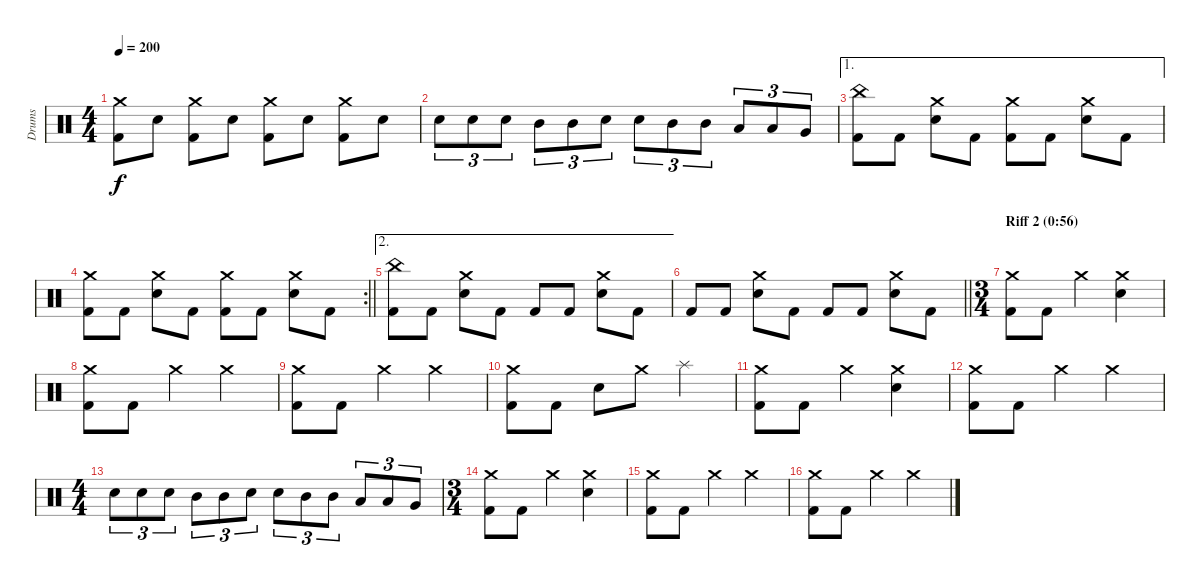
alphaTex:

\track ("Drums" "Drums") {instrument percussion}
\staff {score}
\articulation defaults
\ts (4 4)
\tempo 200
\clef neutral
\ks c
("Crash medium (hit)" "Kick (hit) 2").8{dy f} "Electric Snare (hit)".8 ("Crash medium (hit)" "Kick (hit) 2").8 "Electric Snare (hit)".8 ("Crash medium (hit)" "Kick (hit) 2").8 "Electric Snare (hit)".8 ("Crash medium (hit)" "Kick (hit) 2").8 "Electric Snare (hit)".8 |
"Electric Snare (hit)".8{tu (3 2)} "Electric Snare (hit)".8{tu (3 2)} "Electric Snare (hit)".8{tu (3 2)} "Mid Tom (hit)".8{tu (3 2)} "Mid Tom (hit)".8{tu (3 2)} "Electric Snare (hit)".8{tu (3 2)} "Electric Snare (hit)".8{tu (3 2)} "Mid Tom (hit)".8{tu (3 2)} "Mid Tom (hit)".8{tu (3 2)} "Low Tom (hit)".8{tu (3 2)} "Low Tom (hit)".8{tu (3 2)} "Very Low Tom (hit)".8{tu (3 2)} |
\ae 1
("China (hit)" "Kick (hit) 2").8 "Kick (hit) 2".8 ("Crash medium (hit)" "Electric Snare (hit)").8 "Kick (hit) 2".8 ("Crash medium (hit)" "Kick (hit) 2").8 "Kick (hit) 2".8 ("Crash medium (hit)" "Electric Snare (hit)").8 "Kick (hit) 2".8 |
\rc 2
\barLineRight lightlight
("Crash medium (hit)" "Kick (hit) 2").8 "Kick (hit) 2".8 ("Crash medium (hit)" "Electric Snare (hit)").8 "Kick (hit) 2".8 ("Crash medium (hit)" "Kick (hit) 2").8 "Kick (hit) 2".8 ("Crash medium (hit)" "Electric Snare (hit)").8 "Kick (hit) 2".8 |
\ae 2
("China (hit)" "Kick (hit) 2").8 "Kick (hit) 2".8 ("Crash medium (hit)" "Electric Snare (hit)").8 "Kick (hit) 2".8 "Kick (hit) 2".8 "Kick (hit) 2".8 ("Crash medium (hit)" "Electric Snare (hit)").8 "Kick (hit) 2".8 |
\barLineRight lightlight "Kick (hit) 2".8 "Kick (hit) 2".8
("Crash medium (hit)" "Electric Snare (hit)").8 "Kick (hit) 2".8 "Kick (hit) 2".8 "Kick (hit) 2".8 ("Crash medium (hit)" "Electric Snare (hit)").8 "Kick (hit) 2".8 |
\ts (3 4)
\section ("" "Riff 2 (0:56)")
("Crash medium (hit)" "Kick (hit) 2").8 "Kick (hit) 2".8 "Crash medium (hit)".4 ("Crash medium (hit)" "Electric Snare (hit)").4 |
("Crash medium (hit)" "Kick (hit) 2").8 "Kick (hit) 2".8 "Crash medium (hit)".4 "Crash medium (hit)".4 |
("Crash medium (hit)" "Kick (hit) 2").8 "Kick (hit) 2".8 "Crash medium (hit)".4 "Crash medium (hit)".4 |
("Crash medium (hit)" "Kick (hit) 2").8 "Kick (hit) 2".8 "Electric Snare (hit)".8 "Crash medium (hit)".8 "Splash (hit)".4 |
("Crash medium (hit)" "Kick (hit) 2").8 "Kick (hit) 2".8 "Crash medium (hit)".4 ("Crash medium (hit)" "Electric Snare (hit)").4 |
("Crash medium (hit)" "Kick (hit) 2").8 "Kick (hit) 2".8 "Crash medium (hit)".4 "Crash medium (hit)".4 |
\ts (4 4)
"Electric Snare (hit)".8{tu (3 2)} "Electric Snare (hit)".8{tu (3 2)} "Electric Snare (hit)".8{tu (3 2)} "Mid Tom (hit)".8{tu (3 2)} "Mid Tom (hit)".8{tu (3 2)} "Electric Snare (hit)".8{tu (3 2)} "Electric Snare (hit)".8{tu (3 2)} "Mid Tom (hit)".8{tu (3 2)} "Mid Tom (hit)".8{tu (3 2)} "Low Tom (hit)".8{tu (3 2)} "Low Tom (hit)".8{tu (3 2)} "Very Low Tom (hit)".8{tu (3 2)} |
\ts (3 4)
("Crash medium (hit)" "Kick (hit) 2").8 "Kick (hit) 2".8 "Crash medium (hit)".4 ("Crash medium (hit)" "Electric Snare (hit)").4 |
("Crash medium (hit)" "Kick (hit) 2").8 "Kick (hit) 2".8 "Crash medium (hit)".4 "Crash medium (hit)".4 |
("Crash medium (hit)" "Kick (hit) 2").8 "Kick (hit) 2".8 "Crash medium (hit)".4 "Crash medium (hit)".4
